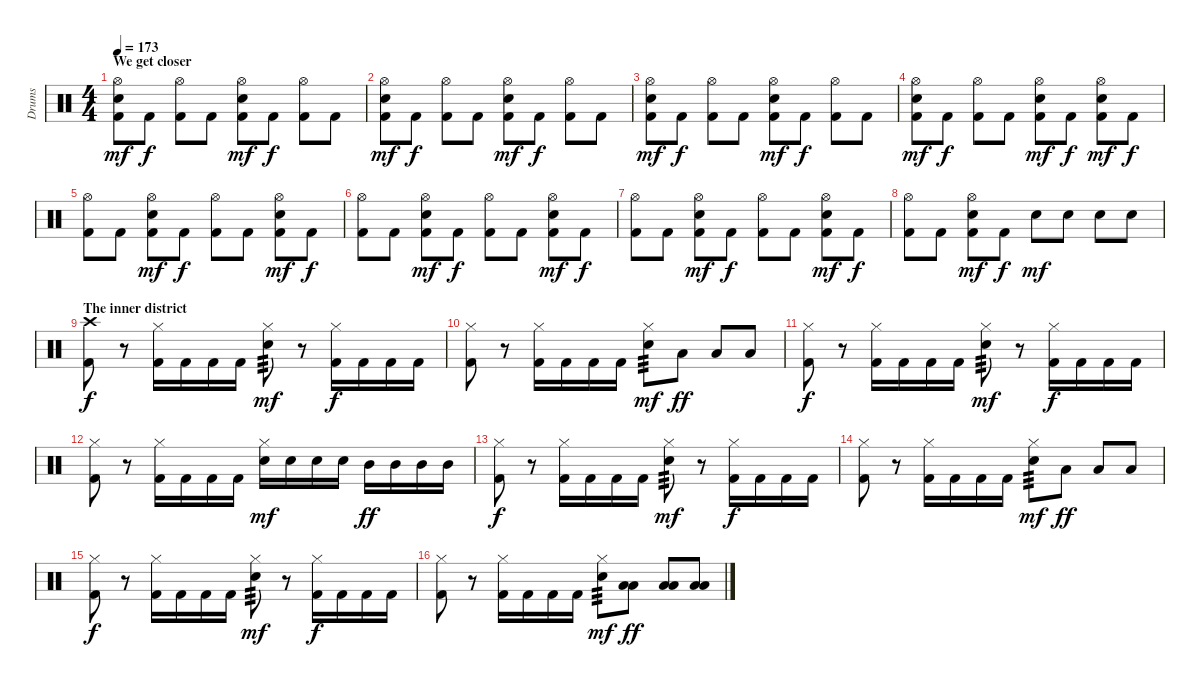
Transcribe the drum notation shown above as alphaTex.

\track ("Drums" "Drums") {instrument percussion}
\staff {score}
\articulation defaults
\ts (4 4)
\section ("" "We get closer")
\tempo 173
\clef neutral
\ks c
("Hi-Hat (open)" "Snare (hit) 2" "Kick (hit) 2").8{dy mf} "Kick (hit) 2".8{dy f} ("Hi-Hat (open)" "Kick (hit) 2").8 "Kick (hit) 2".8 ("Hi-Hat (open)" "Snare (hit) 2" "Kick (hit) 2").8{dy mf} "Kick (hit) 2".8{dy f} ("Hi-Hat (open)" "Kick (hit) 2").8 "Kick (hit) 2".8 |
("Hi-Hat (open)" "Snare (hit) 2" "Kick (hit) 2").8{dy mf} "Kick (hit) 2".8{dy f} ("Hi-Hat (open)" "Kick (hit) 2").8 "Kick (hit) 2".8 ("Hi-Hat (open)" "Snare (hit) 2" "Kick (hit) 2").8{dy mf} "Kick (hit) 2".8{dy f} ("Hi-Hat (open)" "Kick (hit) 2").8 "Kick (hit) 2".8 |
("Hi-Hat (open)" "Snare (hit) 2" "Kick (hit) 2").8{dy mf} "Kick (hit) 2".8{dy f} ("Hi-Hat (open)" "Kick (hit) 2").8 "Kick (hit) 2".8 ("Hi-Hat (open)" "Snare (hit) 2" "Kick (hit) 2").8{dy mf} "Kick (hit) 2".8{dy f} ("Hi-Hat (open)" "Kick (hit) 2").8 "Kick (hit) 2".8 |
("Hi-Hat (open)" "Snare (hit) 2" "Kick (hit) 2").8{dy mf} "Kick (hit) 2".8{dy f} ("Hi-Hat (open)" "Kick (hit) 2").8 "Kick (hit) 2".8 ("Hi-Hat (open)" "Snare (hit) 2" "Kick (hit) 2").8{dy mf} "Kick (hit) 2".8{dy f} ("Hi-Hat (open)" "Snare (hit) 2" "Kick (hit) 2").8{dy mf} "Kick (hit) 2".8{dy f} |
("Hi-Hat (open)" "Kick (hit) 2").8 "Kick (hit) 2".8 ("Hi-Hat (open)" "Snare (hit) 2" "Kick (hit) 2").8{dy mf} "Kick (hit) 2".8{dy f} ("Hi-Hat (open)" "Kick (hit) 2").8 "Kick (hit) 2".8 ("Hi-Hat (open)" "Snare (hit) 2" "Kick (hit) 2").8{dy mf} "Kick (hit) 2".8{dy f} |
("Hi-Hat (open)" "Kick (hit) 2").8 "Kick (hit) 2".8 ("Hi-Hat (open)" "Snare (hit) 2" "Kick (hit) 2").8{dy mf} "Kick (hit) 2".8{dy f} ("Hi-Hat (open)" "Kick (hit) 2").8 "Kick (hit) 2".8 ("Hi-Hat (open)" "Snare (hit) 2" "Kick (hit) 2").8{dy mf} "Kick (hit) 2".8{dy f} |
("Hi-Hat (open)" "Kick (hit) 2").8 "Kick (hit) 2".8 ("Hi-Hat (open)" "Snare (hit) 2" "Kick (hit) 2").8{dy mf} "Kick (hit) 2".8{dy f} ("Hi-Hat (open)" "Kick (hit) 2").8 "Kick (hit) 2".8 ("Hi-Hat (open)" "Snare (hit) 2" "Kick (hit) 2").8{dy mf} "Kick (hit) 2".8{dy f} |
("Hi-Hat (open)" "Kick (hit) 2").8 "Kick (hit) 2".8 ("Hi-Hat (open)" "Snare (hit) 2" "Kick (hit) 2").8{dy mf} "Kick (hit) 2".8{dy f} "Snare (hit) 2".8{dy mf} "Snare (hit) 2".8 "Snare (hit) 2".8 "Snare (hit) 2".8 |
\section ("" "The inner district")
("Crash high (hit)" "Kick (hit) 2").8{dy f} r.8 ("Hi-Hat (closed)" "Kick (hit) 2").16 "Kick (hit) 2".16 "Kick (hit) 2".16 "Kick (hit) 2".16 ("Hi-Hat (closed)" "Snare (hit) 2").8{tp 3 dy mf} r.8 ("Hi-Hat (closed)" "Kick (hit) 2").16{dy f} "Kick (hit) 2".16 "Kick (hit) 2".16 "Kick (hit) 2".16 |
("Hi-Hat (closed)" "Kick (hit) 2").8 r.8 ("Hi-Hat (closed)" "Kick (hit) 2").16 "Kick (hit) 2".16 "Kick (hit) 2".16 "Kick (hit) 2".16 ("Hi-Hat (closed)" "Snare (hit) 2").8{tp 3 dy mf} "Low Tom (hit)".8{dy ff} "Low Tom (hit)".8 "Low Tom (hit)".8 |
("Hi-Hat (closed)" "Kick (hit) 2").8{dy f} r.8 ("Hi-Hat (closed)" "Kick (hit) 2").16 "Kick (hit) 2".16 "Kick (hit) 2".16 "Kick (hit) 2".16 ("Hi-Hat (closed)" "Snare (hit) 2").8{tp 3 dy mf} r.8 ("Hi-Hat (closed)" "Kick (hit) 2").16{dy f} "Kick (hit) 2".16 "Kick (hit) 2".16 "Kick (hit) 2".16 |
("Hi-Hat (closed)" "Kick (hit) 2").8 r.8 ("Hi-Hat (closed)" "Kick (hit) 2").16 "Kick (hit) 2".16 "Kick (hit) 2".16 "Kick (hit) 2".16 ("Hi-Hat (closed)" "Snare (hit) 2").16{dy mf} "Snare (hit) 2".16 "Snare (hit) 2".16 "Snare (hit) 2".16 "Mid Tom (hit)".16{dy ff} "Mid Tom (hit)".16 "Mid Tom (hit)".16 "Mid Tom (hit)".16 |
("Hi-Hat (closed)" "Kick (hit) 2").8{dy f} r.8 ("Hi-Hat (closed)" "Kick (hit) 2").16 "Kick (hit) 2".16 "Kick (hit) 2".16 "Kick (hit) 2".16 ("Hi-Hat (closed)" "Snare (hit) 2").8{tp 3 dy mf} r.8 ("Hi-Hat (closed)" "Kick (hit) 2").16{dy f} "Kick (hit) 2".16 "Kick (hit) 2".16 "Kick (hit) 2".16 |
("Hi-Hat (closed)" "Kick (hit) 2").8 r.8 ("Hi-Hat (closed)" "Kick (hit) 2").16 "Kick (hit) 2".16 "Kick (hit) 2".16 "Kick (hit) 2".16 ("Hi-Hat (closed)" "Snare (hit) 2").8{tp 3 dy mf} "Low Tom (hit)".8{dy ff} "Low Tom (hit)".8 "Low Tom (hit)".8 |
("Hi-Hat (closed)" "Kick (hit) 2").8{dy f} r.8 ("Hi-Hat (closed)" "Kick (hit) 2").16 "Kick (hit) 2".16 "Kick (hit) 2".16 "Kick (hit) 2".16 ("Hi-Hat (closed)" "Snare (hit) 2").8{tp 3 dy mf} r.8 ("Hi-Hat (closed)" "Kick (hit) 2").16{dy f} "Kick (hit) 2".16 "Kick (hit) 2".16 "Kick (hit) 2".16 |
("Hi-Hat (closed)" "Kick (hit) 2").8 r.8 ("Hi-Hat (closed)" "Kick (hit) 2").16 "Kick (hit) 2".16 "Kick (hit) 2".16 "Kick (hit) 2".16 ("Hi-Hat (closed)" "Snare (hit) 2").8{tp 3 dy mf} ("Low Tom (hit)" "Low Floor Tom (hit)").8{dy ff} ("Low Tom (hit)" "Low Floor Tom (hit)").8 ("Low Tom (hit)" "Low Floor Tom (hit)").8
